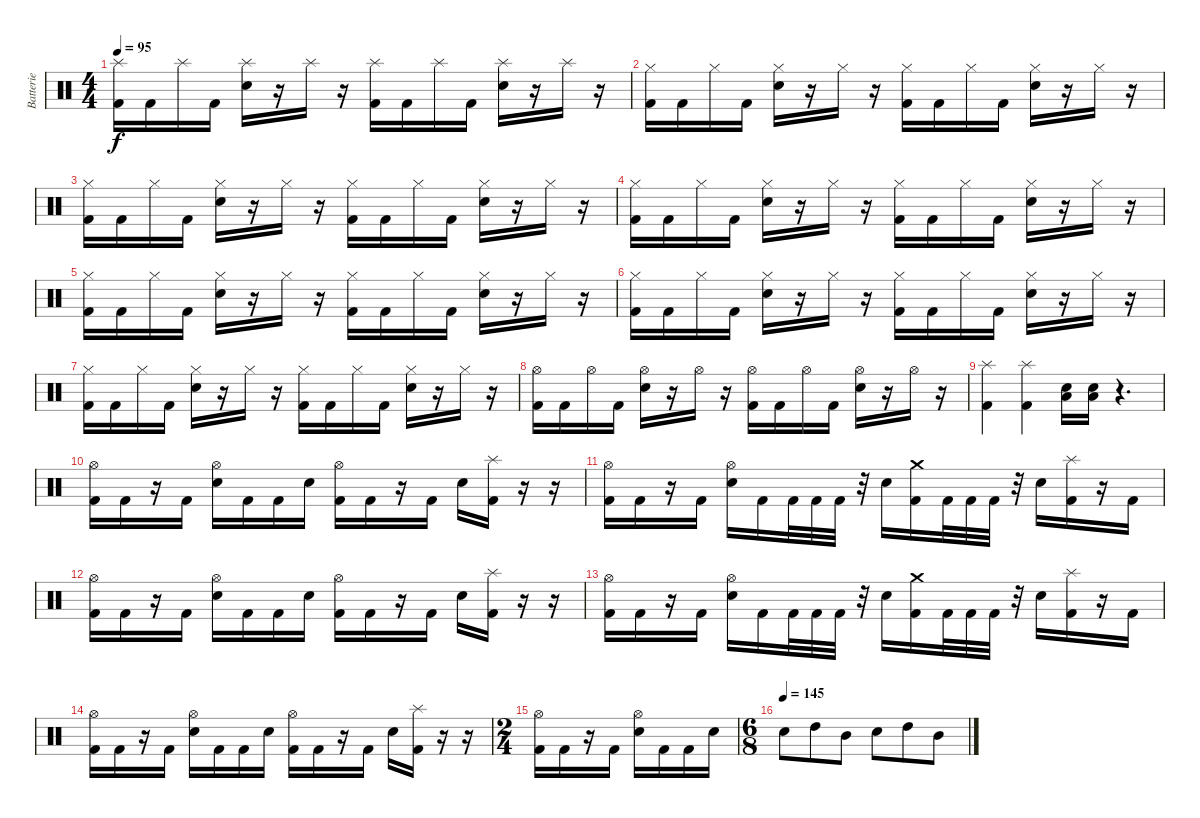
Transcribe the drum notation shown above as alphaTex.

\track ("Batterie" "Batterie") {instrument percussion}
\staff {score}
\articulation defaults
\ts (4 4)
\tempo 95
\clef neutral
\ks c
("Splash (hit)" "Kick (hit) 2").16{dy f} "Kick (hit) 2".16 "Splash (hit)".16 "Kick (hit) 2".16 ("Splash (hit)" "Electric Snare (hit)").16 r.16 "Splash (hit)".16 r.16 ("Splash (hit)" "Kick (hit) 2").16 "Kick (hit) 2".16 "Splash (hit)".16 "Kick (hit) 2".16 ("Splash (hit)" "Electric Snare (hit)").16 r.16 "Splash (hit)".16 r.16 |
("Hi-Hat (closed)" "Kick (hit) 2").16 "Kick (hit) 2".16 "Hi-Hat (closed)".16 "Kick (hit) 2".16 ("Hi-Hat (closed)" "Electric Snare (hit)").16 r.16 "Hi-Hat (closed)".16 r.16 ("Hi-Hat (closed)" "Kick (hit) 2").16 "Kick (hit) 2".16 "Hi-Hat (closed)".16 "Kick (hit) 2".16 ("Hi-Hat (closed)" "Electric Snare (hit)").16 r.16 "Hi-Hat (closed)".16 r.16 |
("Hi-Hat (closed)" "Kick (hit) 2").16 "Kick (hit) 2".16 "Hi-Hat (closed)".16 "Kick (hit) 2".16 ("Hi-Hat (closed)" "Electric Snare (hit)").16 r.16 "Hi-Hat (closed)".16 r.16 ("Hi-Hat (closed)" "Kick (hit) 2").16 "Kick (hit) 2".16 "Hi-Hat (closed)".16 "Kick (hit) 2".16 ("Hi-Hat (closed)" "Electric Snare (hit)").16 r.16 "Hi-Hat (closed)".16 r.16 |
("Hi-Hat (closed)" "Kick (hit) 2").16 "Kick (hit) 2".16 "Hi-Hat (closed)".16 "Kick (hit) 2".16 ("Hi-Hat (closed)" "Electric Snare (hit)").16 r.16 "Hi-Hat (closed)".16 r.16 ("Hi-Hat (closed)" "Kick (hit) 2").16 "Kick (hit) 2".16 "Hi-Hat (closed)".16 "Kick (hit) 2".16 ("Hi-Hat (closed)" "Electric Snare (hit)").16 r.16 "Hi-Hat (closed)".16 r.16 |
("Hi-Hat (closed)" "Kick (hit) 2").16 "Kick (hit) 2".16 "Hi-Hat (closed)".16 "Kick (hit) 2".16 ("Hi-Hat (closed)" "Electric Snare (hit)").16 r.16 "Hi-Hat (closed)".16 r.16 ("Hi-Hat (closed)" "Kick (hit) 2").16 "Kick (hit) 2".16 "Hi-Hat (closed)".16 "Kick (hit) 2".16 ("Hi-Hat (closed)" "Electric Snare (hit)").16 r.16 "Hi-Hat (closed)".16 r.16 |
("Hi-Hat (closed)" "Kick (hit) 2").16 "Kick (hit) 2".16 "Hi-Hat (closed)".16 "Kick (hit) 2".16 ("Hi-Hat (closed)" "Electric Snare (hit)").16 r.16 "Hi-Hat (closed)".16 r.16 ("Hi-Hat (closed)" "Kick (hit) 2").16 "Kick (hit) 2".16 "Hi-Hat (closed)".16 "Kick (hit) 2".16 ("Hi-Hat (closed)" "Electric Snare (hit)").16 r.16 "Hi-Hat (closed)".16 r.16 |
("Hi-Hat (closed)" "Kick (hit) 2").16 "Kick (hit) 2".16 "Hi-Hat (closed)".16 "Kick (hit) 2".16 ("Hi-Hat (closed)" "Electric Snare (hit)").16 r.16 "Hi-Hat (closed)".16 r.16 ("Hi-Hat (closed)" "Kick (hit) 2").16 "Kick (hit) 2".16 "Hi-Hat (closed)".16 "Kick (hit) 2".16 ("Hi-Hat (closed)" "Electric Snare (hit)").16 r.16 "Hi-Hat (closed)".16 r.16 |
("Hi-Hat (open)" "Kick (hit) 2").16 "Kick (hit) 2".16 "Hi-Hat (open)".16 "Kick (hit) 2".16 ("Hi-Hat (open)" "Electric Snare (hit)").16 r.16 "Hi-Hat (open)".16 r.16 ("Hi-Hat (open)" "Kick (hit) 2").16 "Kick (hit) 2".16 "Hi-Hat (open)".16 "Kick (hit) 2".16 ("Hi-Hat (open)" "Electric Snare (hit)").16 r.16 "Hi-Hat (open)".16 r.16 |
("Splash (hit)" "Kick (hit) 2").4 ("Splash (hit)" "Kick (hit) 2").4 ("Low Tom (hit)" "Electric Snare (hit)").16 ("Low Tom (hit)" "Electric Snare (hit)").16 r.4{d} |
("Hi-Hat (open)" "Kick (hit) 2").16 "Kick (hit) 2".16 r.16 "Kick (hit) 2".16 ("Hi-Hat (open)" "Electric Snare (hit)").16 "Kick (hit) 2".16 "Kick (hit) 2".16 "Electric Snare (hit)".16 ("Hi-Hat (open)" "Kick (hit) 2").16 "Kick (hit) 2".16 r.16 "Kick (hit) 2".16 "Electric Snare (hit)".16 ("Splash (hit)" "Kick (hit) 2").16 r.16 r.16 |
("Hi-Hat (open)" "Kick (hit) 2").16 "Kick (hit) 2".16 r.16 "Kick (hit) 2".16 ("Hi-Hat (open)" "Electric Snare (hit)").16 "Kick (hit) 2".16 "Kick (hit) 2".32 "Kick (hit) 2".32 "Kick (hit) 2".32 r.32 "Electric Snare (hit)".16 ("Crash medium (hit)" "Kick (hit) 2").16 "Kick (hit) 2".32 "Kick (hit) 2".32 "Kick (hit) 2".32 r.32 "Electric Snare (hit)".16 ("Splash (hit)" "Kick (hit) 2").16 r.16 "Kick (hit) 2".16 |
("Hi-Hat (open)" "Kick (hit) 2").16 "Kick (hit) 2".16 r.16 "Kick (hit) 2".16 ("Hi-Hat (open)" "Electric Snare (hit)").16 "Kick (hit) 2".16 "Kick (hit) 2".16 "Electric Snare (hit)".16 ("Hi-Hat (open)" "Kick (hit) 2").16 "Kick (hit) 2".16 r.16 "Kick (hit) 2".16 "Electric Snare (hit)".16 ("Splash (hit)" "Kick (hit) 2").16 r.16 r.16 |
("Hi-Hat (open)" "Kick (hit) 2").16 "Kick (hit) 2".16 r.16 "Kick (hit) 2".16 ("Hi-Hat (open)" "Electric Snare (hit)").16 "Kick (hit) 2".16 "Kick (hit) 2".32 "Kick (hit) 2".32 "Kick (hit) 2".32 r.32 "Electric Snare (hit)".16 ("Crash medium (hit)" "Kick (hit) 2").16 "Kick (hit) 2".32 "Kick (hit) 2".32 "Kick (hit) 2".32 r.32 "Electric Snare (hit)".16 ("Splash (hit)" "Kick (hit) 2").16 r.16 "Kick (hit) 2".16 |
("Hi-Hat (open)" "Kick (hit) 2").16 "Kick (hit) 2".16 r.16 "Kick (hit) 2".16 ("Hi-Hat (open)" "Electric Snare (hit)").16 "Kick (hit) 2".16 "Kick (hit) 2".16 "Electric Snare (hit)".16 ("Hi-Hat (open)" "Kick (hit) 2").16 "Kick (hit) 2".16 r.16 "Kick (hit) 2".16 "Electric Snare (hit)".16 ("Splash (hit)" "Kick (hit) 2").16 r.16 r.16 |
\ts (2 4)
("Hi-Hat (open)" "Kick (hit) 2").16 "Kick (hit) 2".16 r.16 "Kick (hit) 2".16 ("Hi-Hat (open)" "Electric Snare (hit)").16 "Kick (hit) 2".16 "Kick (hit) 2".16 "Electric Snare (hit)".16 |
\ts (6 8)
\tempo 180
\tempo (145)
"Electric Snare (hit)".8 "High Tom (hit)".8 "Mid Tom (hit)".8 "Electric Snare (hit)".8 "High Tom (hit)".8 "Mid Tom (hit)".8
